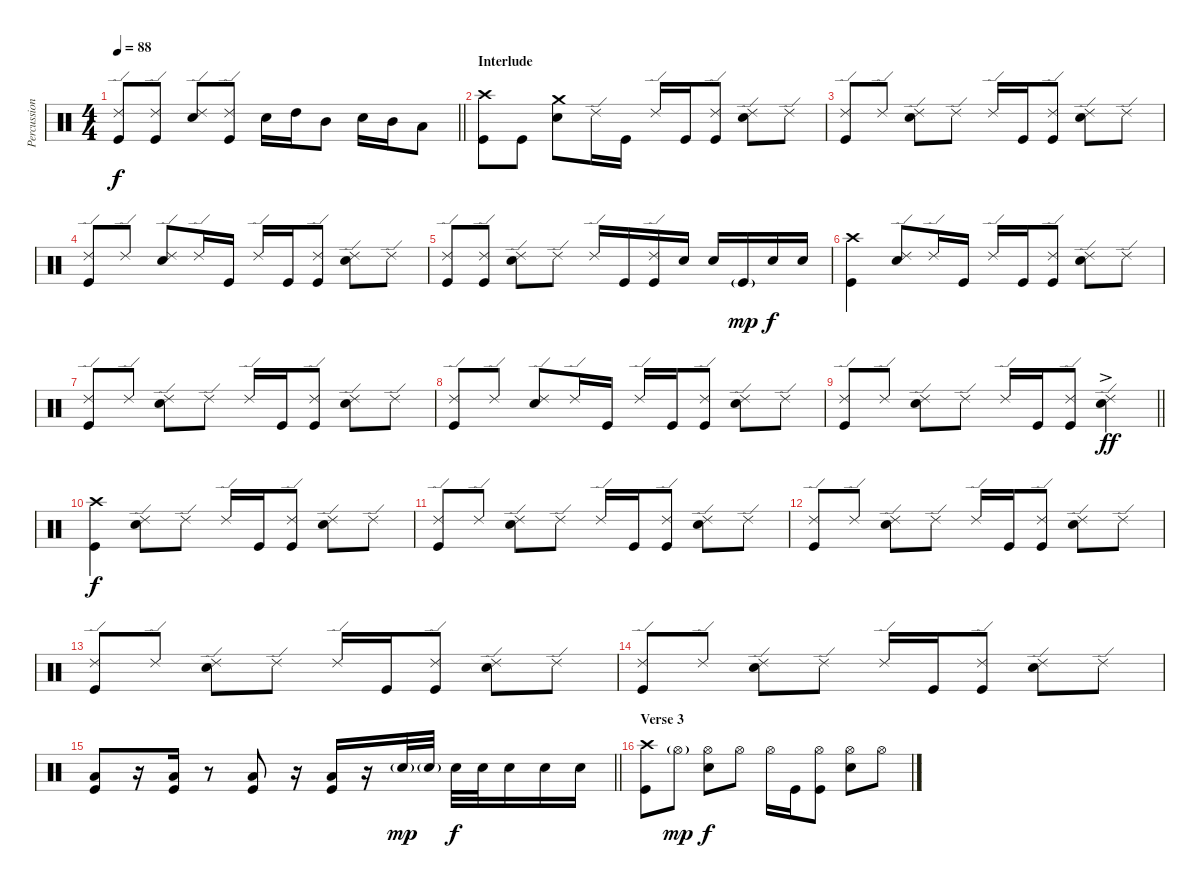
\track ("Percussion" "Percussion") {instrument percussion}
\staff {score}
\articulation defaults
\ts (4 4)
\tempo 88
\clef neutral
\barLineRight lightlight
\ks c
("Ride (edge) 2" "Kick (hit)").8{dy f} ("Ride (edge) 2" "Kick (hit)").8 ("Ride (edge) 2" "Snare (hit) 2").8 ("Ride (edge) 2" "Kick (hit)").8 "Snare (hit) 2".16 "High Tom (hit)".16 "Mid Tom (hit)".8 "Snare (hit) 2".16 "Mid Tom (hit)".16 "Low Tom (hit)".8 |
\section ("" "Interlude")
("Crash high (hit)" "Kick (hit)").8 "Kick (hit)".8 ("Crash medium (hit)" "Snare (hit) 2").8 "Ride (edge) 2".16 "Kick (hit)".16 "Ride (edge) 2".16 "Kick (hit)".16 ("Ride (edge) 2" "Kick (hit)").8 ("Ride (edge) 2" "Snare (hit) 2").8 "Ride (edge) 2".8 |
("Ride (edge) 2" "Kick (hit)").8 "Ride (edge) 2".8 ("Ride (edge) 2" "Snare (hit) 2").8 "Ride (edge) 2".8 "Ride (edge) 2".16 "Kick (hit)".16 ("Ride (edge) 2" "Kick (hit)").8 ("Ride (edge) 2" "Snare (hit) 2").8 "Ride (edge) 2".8 |
("Ride (edge) 2" "Kick (hit)").8 "Ride (edge) 2".8 ("Ride (edge) 2" "Snare (hit) 2").8 "Ride (edge) 2".16 "Kick (hit)".16 "Ride (edge) 2".16 "Kick (hit)".16 ("Ride (edge) 2" "Kick (hit)").8 ("Ride (edge) 2" "Snare (hit) 2").8 "Ride (edge) 2".8 |
("Ride (edge) 2" "Kick (hit)").8 ("Ride (edge) 2" "Kick (hit)").8 ("Ride (edge) 2" "Snare (hit) 2").8 "Ride (edge) 2".8 "Ride (edge) 2".16 "Kick (hit)".16 ("Ride (edge) 2" "Kick (hit)").16 "Snare (hit) 2".16 "Snare (hit) 2".16 "Kick (hit)"{g}.16{dy mp} "Snare (hit) 2".16{dy f} "Snare (hit) 2".16 |
("Crash high (hit)" "Kick (hit)").4 ("Ride (edge) 2" "Snare (hit) 2").8 "Ride (edge) 2".16 "Kick (hit)".16 "Ride (edge) 2".16 "Kick (hit)".16 ("Ride (edge) 2" "Kick (hit)").8 ("Ride (edge) 2" "Snare (hit) 2").8 "Ride (edge) 2".8 |
("Ride (edge) 2" "Kick (hit)").8 "Ride (edge) 2".8 ("Ride (edge) 2" "Snare (hit) 2").8 "Ride (edge) 2".8 "Ride (edge) 2".16 "Kick (hit)".16 ("Ride (edge) 2" "Kick (hit)").8 ("Ride (edge) 2" "Snare (hit) 2").8 "Ride (edge) 2".8 |
("Ride (edge) 2" "Kick (hit)").8 "Ride (edge) 2".8 ("Ride (edge) 2" "Snare (hit) 2").8 "Ride (edge) 2".16 "Kick (hit)".16 "Ride (edge) 2".16 "Kick (hit)".16 ("Ride (edge) 2" "Kick (hit)").8 ("Ride (edge) 2" "Snare (hit) 2").8 "Ride (edge) 2".8 |
\barLineRight lightlight
("Ride (edge) 2" "Kick (hit)").8 "Ride (edge) 2".8 ("Ride (edge) 2" "Snare (hit) 2").8 "Ride (edge) 2".8 "Ride (edge) 2".16 "Kick (hit)".16 ("Ride (edge) 2" "Kick (hit)").8 ("Ride (edge) 2" "Snare (hit) 2"{ac}).4{dy ff} |
("Crash high (hit)" "Kick (hit)").4{dy f} ("Ride (edge) 2" "Snare (hit) 2").8 "Ride (edge) 2".8 "Ride (edge) 2".16 "Kick (hit)".16 ("Ride (edge) 2" "Kick (hit)").8 ("Ride (edge) 2" "Snare (hit) 2").8 "Ride (edge) 2".8 |
("Ride (edge) 2" "Kick (hit)").8 "Ride (edge) 2".8 ("Ride (edge) 2" "Snare (hit) 2").8 "Ride (edge) 2".8 "Ride (edge) 2".16 "Kick (hit)".16 ("Ride (edge) 2" "Kick (hit)").8 ("Ride (edge) 2" "Snare (hit) 2").8 "Ride (edge) 2".8 |
("Ride (edge) 2" "Kick (hit)").8 "Ride (edge) 2".8 ("Ride (edge) 2" "Snare (hit) 2").8 "Ride (edge) 2".8 "Ride (edge) 2".16 "Kick (hit)".16 ("Ride (edge) 2" "Kick (hit)").8 ("Ride (edge) 2" "Snare (hit) 2").8 "Ride (edge) 2".8 |
("Ride (edge) 2" "Kick (hit)").8 "Ride (edge) 2".8 ("Ride (edge) 2" "Snare (hit) 2").8 "Ride (edge) 2".8 "Ride (edge) 2".16 "Kick (hit)".16 ("Ride (edge) 2" "Kick (hit)").8 ("Ride (edge) 2" "Snare (hit) 2").8 "Ride (edge) 2".8 |
("Ride (edge) 2" "Kick (hit)").8 "Ride (edge) 2".8 ("Ride (edge) 2" "Snare (hit) 2").8 "Ride (edge) 2".8 "Ride (edge) 2".16 "Kick (hit)".16 ("Ride (edge) 2" "Kick (hit)").8 ("Ride (edge) 2" "Snare (hit) 2").8 "Ride (edge) 2".8 |
\barLineRight lightlight
("Low Tom (hit)" "Kick (hit)").8 r.16 ("Low Tom (hit)" "Kick (hit)").16 r.8 ("Low Tom (hit)" "Kick (hit)").8 r.16 ("Low Tom (hit)" "Kick (hit)").16 r.16 "Snare (hit) 2"{g}.32{dy mp} "Snare (hit) 2"{g}.32 "Snare (hit) 2".32{dy f} "Snare (hit) 2".32 "Snare (hit) 2".16 "Snare (hit) 2".16 "Snare (hit) 2".16 |
\section ("" "Verse 3")
("Crash high (hit)" "Kick (hit)").8 "Hi-Hat (open)"{g}.8{dy mp} ("Hi-Hat (open)" "Snare (hit) 2").8{dy f} "Hi-Hat (open)".8 "Hi-Hat (open)".16 "Kick (hit)".16 ("Hi-Hat (open)" "Kick (hit)").8 ("Hi-Hat (open)" "Snare (hit) 2").8 "Hi-Hat (open)".8
